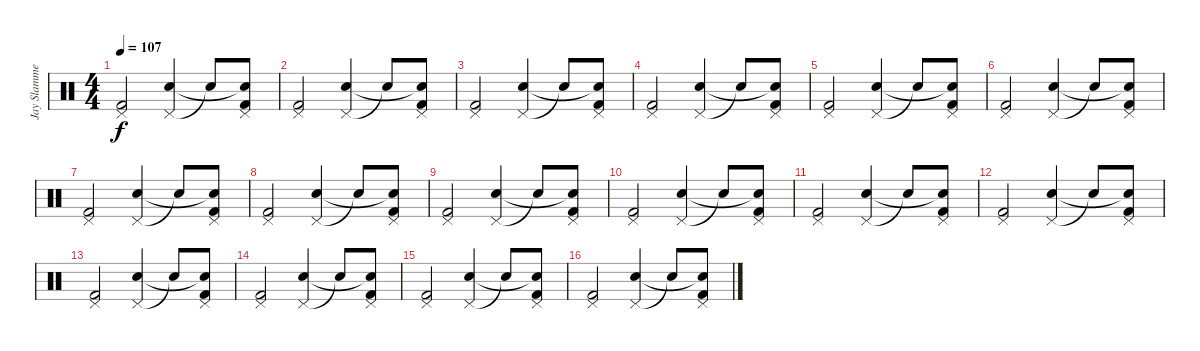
\track ("Jay Slammer" "Jay Slamme") {instrument percussion}
\staff {score}
\articulation defaults
\ts (4 4)
\tempo 107
\clef neutral
\ks c
("Pedal Hi-Hat (hit)" "Kick (hit) 2").2{dy f} ("Pedal Hi-Hat (hit)" "Electric Snare (hit)").4 "Snare (hit)"{t}.8 ("Pedal Hi-Hat (hit)" "Snare (hit)"{t} "Kick (hit) 2").8 |
("Pedal Hi-Hat (hit)" "Kick (hit) 2").2 ("Pedal Hi-Hat (hit)" "Electric Snare (hit)").4 "Snare (hit)"{t}.8 ("Pedal Hi-Hat (hit)" "Snare (hit)"{t} "Kick (hit) 2").8 |
("Pedal Hi-Hat (hit)" "Kick (hit) 2").2 ("Pedal Hi-Hat (hit)" "Electric Snare (hit)").4 "Snare (hit)"{t}.8 ("Pedal Hi-Hat (hit)" "Snare (hit)"{t} "Kick (hit) 2").8 |
("Pedal Hi-Hat (hit)" "Kick (hit) 2").2 ("Pedal Hi-Hat (hit)" "Electric Snare (hit)").4 "Snare (hit)"{t}.8 ("Pedal Hi-Hat (hit)" "Snare (hit)"{t} "Kick (hit) 2").8 |
("Pedal Hi-Hat (hit)" "Kick (hit) 2").2 ("Pedal Hi-Hat (hit)" "Electric Snare (hit)").4 "Snare (hit)"{t}.8 ("Pedal Hi-Hat (hit)" "Snare (hit)"{t} "Kick (hit) 2").8 |
("Pedal Hi-Hat (hit)" "Kick (hit) 2").2 ("Pedal Hi-Hat (hit)" "Electric Snare (hit)").4 "Snare (hit)"{t}.8 ("Pedal Hi-Hat (hit)" "Snare (hit)"{t} "Kick (hit) 2").8 |
("Pedal Hi-Hat (hit)" "Kick (hit) 2").2 ("Pedal Hi-Hat (hit)" "Electric Snare (hit)").4 "Snare (hit)"{t}.8 ("Pedal Hi-Hat (hit)" "Snare (hit)"{t} "Kick (hit) 2").8 |
("Pedal Hi-Hat (hit)" "Kick (hit) 2").2 ("Pedal Hi-Hat (hit)" "Electric Snare (hit)").4 "Snare (hit)"{t}.8 ("Pedal Hi-Hat (hit)" "Snare (hit)"{t} "Kick (hit) 2").8 |
("Pedal Hi-Hat (hit)" "Kick (hit) 2").2 ("Pedal Hi-Hat (hit)" "Electric Snare (hit)").4 "Snare (hit)"{t}.8 ("Pedal Hi-Hat (hit)" "Snare (hit)"{t} "Kick (hit) 2").8 |
("Pedal Hi-Hat (hit)" "Kick (hit) 2").2 ("Pedal Hi-Hat (hit)" "Electric Snare (hit)").4 "Snare (hit)"{t}.8 ("Pedal Hi-Hat (hit)" "Snare (hit)"{t} "Kick (hit) 2").8 |
("Pedal Hi-Hat (hit)" "Kick (hit) 2").2 ("Pedal Hi-Hat (hit)" "Electric Snare (hit)").4 "Snare (hit)"{t}.8 ("Pedal Hi-Hat (hit)" "Snare (hit)"{t} "Kick (hit) 2").8 |
("Pedal Hi-Hat (hit)" "Kick (hit) 2").2 ("Pedal Hi-Hat (hit)" "Electric Snare (hit)").4 "Snare (hit)"{t}.8 ("Pedal Hi-Hat (hit)" "Snare (hit)"{t} "Kick (hit) 2").8 |
("Pedal Hi-Hat (hit)" "Kick (hit) 2").2 ("Pedal Hi-Hat (hit)" "Electric Snare (hit)").4 "Snare (hit)"{t}.8 ("Pedal Hi-Hat (hit)" "Snare (hit)"{t} "Kick (hit) 2").8 |
("Pedal Hi-Hat (hit)" "Kick (hit) 2").2 ("Pedal Hi-Hat (hit)" "Electric Snare (hit)").4 "Snare (hit)"{t}.8 ("Pedal Hi-Hat (hit)" "Snare (hit)"{t} "Kick (hit) 2").8 |
("Pedal Hi-Hat (hit)" "Kick (hit) 2").2 ("Pedal Hi-Hat (hit)" "Electric Snare (hit)").4 "Snare (hit)"{t}.8 ("Pedal Hi-Hat (hit)" "Snare (hit)"{t} "Kick (hit) 2").8 |
("Pedal Hi-Hat (hit)" "Kick (hit) 2").2 ("Pedal Hi-Hat (hit)" "Electric Snare (hit)").4 "Snare (hit)"{t}.8 ("Pedal Hi-Hat (hit)" "Snare (hit)"{t} "Kick (hit) 2").8
